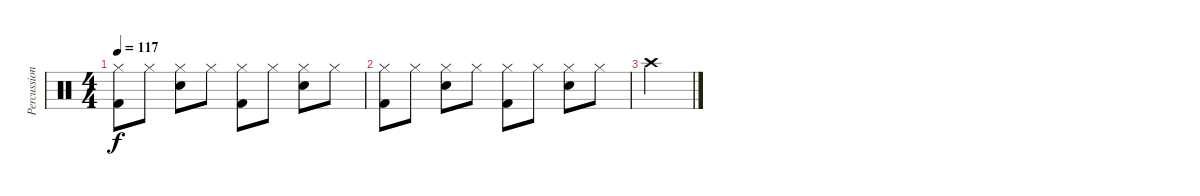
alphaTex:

\track ("Percussion" "Percussion") {instrument percussion}
\staff {score}
\articulation defaults
\ts (4 4)
\tempo 117
\clef neutral
\ks c
("Kick (hit) 2" "Hi-Hat (closed)").8{dy f} "Hi-Hat (closed)".8 ("Hi-Hat (closed)" "Snare (hit) 2").8 "Hi-Hat (closed)".8 ("Kick (hit) 2" "Hi-Hat (closed)").8 "Hi-Hat (closed)".8 ("Hi-Hat (closed)" "Snare (hit) 2").8 "Hi-Hat (closed)".8 |
("Kick (hit) 2" "Hi-Hat (closed)").8 "Hi-Hat (closed)".8 ("Hi-Hat (closed)" "Snare (hit) 2").8 "Hi-Hat (closed)".8 ("Kick (hit) 2" "Hi-Hat (closed)").8 "Hi-Hat (closed)".8 ("Hi-Hat (closed)" "Snare (hit) 2").8 "Hi-Hat (closed)".8 |
"Crash high (hit)".2
